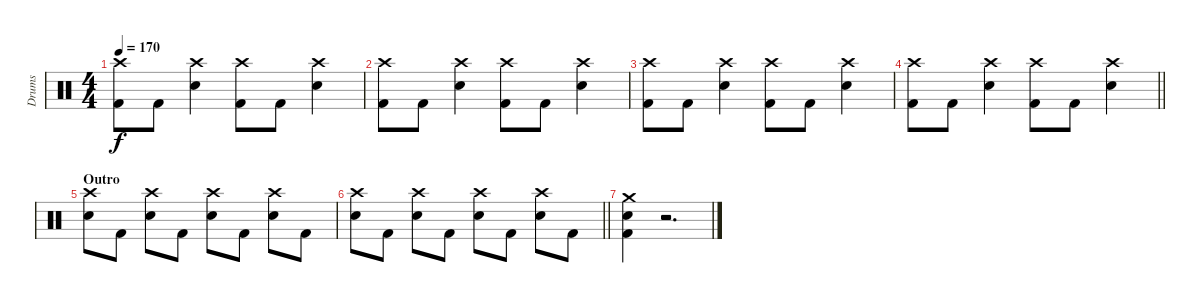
\track ("Drums" "Drums") {instrument percussion}
\staff {score}
\articulation defaults
\ts (4 4)
\tempo 170
\clef neutral
\ks c
("Crash high (hit)" "Kick (hit) 2").8{dy f} "Kick (hit) 2".8 ("Electric Snare (hit)" "Crash high (hit)").4 ("Crash high (hit)" "Kick (hit) 2").8 "Kick (hit) 2".8 ("Electric Snare (hit)" "Crash high (hit)").4 |
("Crash high (hit)" "Kick (hit) 2").8 "Kick (hit) 2".8 ("Electric Snare (hit)" "Crash high (hit)").4 ("Crash high (hit)" "Kick (hit) 2").8 "Kick (hit) 2".8 ("Electric Snare (hit)" "Crash high (hit)").4 |
("Crash high (hit)" "Kick (hit) 2").8 "Kick (hit) 2".8 ("Electric Snare (hit)" "Crash high (hit)").4 ("Crash high (hit)" "Kick (hit) 2").8 "Kick (hit) 2".8 ("Electric Snare (hit)" "Crash high (hit)").4 |
\barLineRight lightlight
("Crash high (hit)" "Kick (hit) 2").8 "Kick (hit) 2".8 ("Electric Snare (hit)" "Crash high (hit)").4 ("Crash high (hit)" "Kick (hit) 2").8 "Kick (hit) 2".8 ("Electric Snare (hit)" "Crash high (hit)").4 |
\section ("" "Outro")
("Electric Snare (hit)" "Crash high (hit)").8 "Kick (hit) 2".8 ("Electric Snare (hit)" "Crash high (hit)").8 "Kick (hit) 2".8 ("Electric Snare (hit)" "Crash high (hit)").8 "Kick (hit) 2".8 ("Electric Snare (hit)" "Crash high (hit)").8 "Kick (hit) 2".8 |
\barLineRight lightlight
("Electric Snare (hit)" "Crash high (hit)").8 "Kick (hit) 2".8 ("Electric Snare (hit)" "Crash high (hit)").8 "Kick (hit) 2".8 ("Electric Snare (hit)" "Crash high (hit)").8 "Kick (hit) 2".8 ("Electric Snare (hit)" "Crash high (hit)").8 "Kick (hit) 2".8 |
("Electric Snare (hit)" "Crash medium (hit)" "Kick (hit) 2").4 r.2{d}
